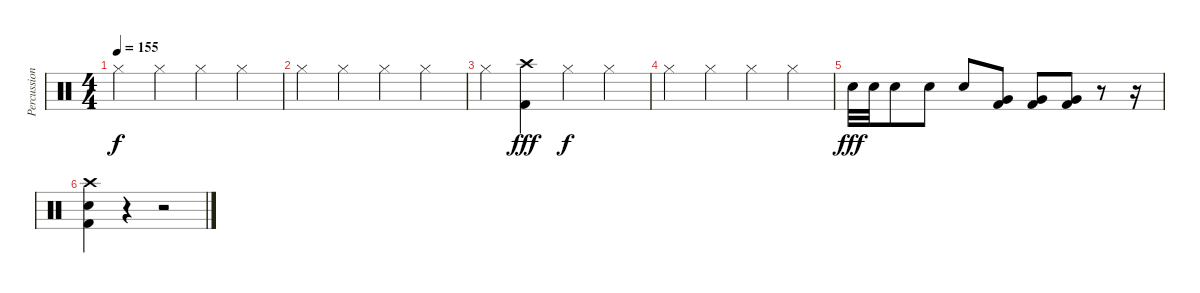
\track ("Percussion" "Percussion") {instrument percussion}
\staff {score}
\articulation defaults
\ts (4 4)
\tempo 155
\clef neutral
\ks c "Hi-Hat (closed)".4{dy f} "Hi-Hat (closed)".4 "Hi-Hat (closed)".4 "Hi-Hat (closed)".4
|
"Hi-Hat (closed)".4 "Hi-Hat (closed)".4 "Hi-Hat (closed)".4 "Hi-Hat (closed)".4 |
"Hi-Hat (closed)".4 ("Crash high (hit)" "Kick (hit) 2").4{dy fff} "Hi-Hat (closed)".4{dy f} "Hi-Hat (closed)".4 |
"Hi-Hat (closed)".4 "Hi-Hat (closed)".4 "Hi-Hat (closed)".4 "Hi-Hat (closed)".4 |
"Electric Snare (hit)".32{dy fff} "Electric Snare (hit)".32 "Electric Snare (hit)".8 "Electric Snare (hit)".8 "Electric Snare (hit)".8 ("Very Low Tom (hit)" "Kick (hit) 2").8 ("Very Low Tom (hit)" "Kick (hit) 2").8 ("Very Low Tom (hit)" "Kick (hit) 2").8 r.8 r.16 |
("Crash high (hit)" "Kick (hit) 2" "Electric Snare (hit)").4 r.4 r.2
